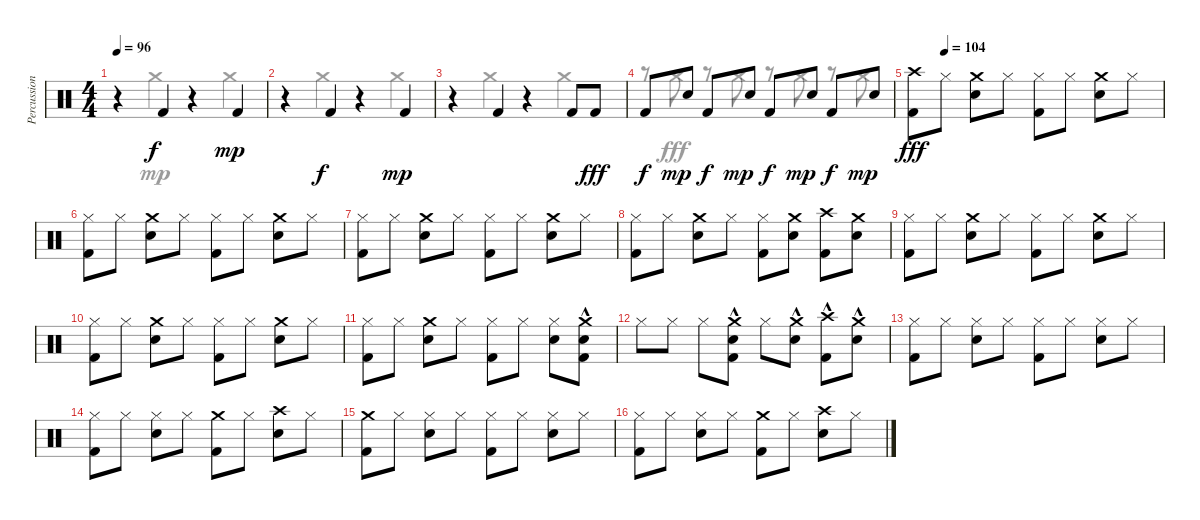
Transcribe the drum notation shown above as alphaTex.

\track ("Percussions" "Percussion") {instrument percussion}
\staff {score}
\articulation defaults
\voice
\ts (4 4)
\tempo 96
\clef neutral
\ks c
r.4{dy mp} "Kick (hit) 2".4{dy f} r.4 "Kick (hit) 2".4{dy mp} |
r.4 "Kick (hit) 2".4{dy f} r.4 "Kick (hit) 2".4{dy mp} |
r.4 "Kick (hit) 2".4 r.4 "Kick (hit) 2".8 "Kick (hit) 2".8{dy fff} |
"Kick (hit) 2".8{dy f} "Snare (hit) 2".8{dy mp} "Kick (hit) 2".8{dy f} "Snare (hit) 2".8{dy mp} "Kick (hit) 2".8{dy f} "Snare (hit) 2".8{dy mp} "Kick (hit) 2".8{dy f} "Snare (hit) 2".8{dy mp} |
\tempo (104 0.125)
("Kick (hit) 2" "Crash high (hit)").8{dy fff} "Hi-Hat (closed)".8 ("Snare (hit) 2" "Crash medium (hit)").8 "Hi-Hat (closed)".8 ("Hi-Hat (closed)" "Kick (hit) 2").8 "Hi-Hat (closed)".8 ("Crash medium (hit)" "Snare (hit) 2").8 "Hi-Hat (closed)".8 |
("Kick (hit) 2" "Hi-Hat (closed)").8 "Hi-Hat (closed)".8 ("Snare (hit) 2" "Crash medium (hit)").8 "Hi-Hat (closed)".8 ("Hi-Hat (closed)" "Kick (hit) 2").8 "Hi-Hat (closed)".8 ("Crash medium (hit)" "Snare (hit) 2").8 "Hi-Hat (closed)".8 |
("Kick (hit) 2" "Hi-Hat (closed)").8 "Hi-Hat (closed)".8 ("Snare (hit) 2" "Crash medium (hit)").8 "Hi-Hat (closed)".8 ("Hi-Hat (closed)" "Kick (hit) 2").8 "Hi-Hat (closed)".8 ("Crash medium (hit)" "Snare (hit) 2").8 "Hi-Hat (closed)".8 |
("Kick (hit) 2" "Hi-Hat (closed)").8 "Hi-Hat (closed)".8 ("Crash medium (hit)" "Snare (hit) 2").8 "Hi-Hat (closed)".8 ("Hi-Hat (closed)" "Kick (hit) 2").8 ("Crash medium (hit)" "Snare (hit) 2").8 ("Crash high (hit)" "Kick (hit) 2").8 ("Crash medium (hit)" "Snare (hit) 2").8 |
("Kick (hit) 2" "Hi-Hat (closed)").8 "Hi-Hat (closed)".8 ("Snare (hit) 2" "Crash medium (hit)").8 "Hi-Hat (closed)".8 ("Hi-Hat (closed)" "Kick (hit) 2").8 "Hi-Hat (closed)".8 ("Crash medium (hit)" "Snare (hit) 2").8 "Hi-Hat (closed)".8 |
("Kick (hit) 2" "Hi-Hat (closed)").8 "Hi-Hat (closed)".8 ("Snare (hit) 2" "Crash medium (hit)").8 "Hi-Hat (closed)".8 ("Hi-Hat (closed)" "Kick (hit) 2").8 "Hi-Hat (closed)".8 ("Crash medium (hit)" "Snare (hit) 2").8 "Hi-Hat (closed)".8 |
("Kick (hit) 2" "Hi-Hat (closed)").8 "Hi-Hat (closed)".8 ("Snare (hit) 2" "Crash medium (hit)").8 "Hi-Hat (closed)".8 ("Hi-Hat (closed)" "Kick (hit) 2").8 "Hi-Hat (closed)".8 ("Hi-Hat (closed)" "Snare (hit) 2").8 ("Crash medium (hit)"{hac} "Snare (hit) 2"{hac} "Kick (hit) 2"{hac}).8 |
"Hi-Hat (closed)".8 "Hi-Hat (closed)".8 "Hi-Hat (closed)".8 ("Crash medium (hit)"{hac} "Snare (hit) 2"{hac} "Kick (hit) 2"{hac}).8 "Hi-Hat (closed)".8 ("Crash medium (hit)"{hac} "Snare (hit) 2"{hac}).8 ("Kick (hit) 2"{hac} "Crash high (hit)"{hac}).8 ("Crash medium (hit)"{hac} "Snare (hit) 2"{hac}).8 |
("Kick (hit) 2" "Hi-Hat (closed)").8 "Hi-Hat (closed)".8 ("Snare (hit) 2" "Hi-Hat (closed)").8 "Hi-Hat (closed)".8 ("Hi-Hat (closed)" "Kick (hit) 2").8 "Hi-Hat (closed)".8 ("Hi-Hat (closed)" "Snare (hit) 2").8 "Hi-Hat (closed)".8 |
("Kick (hit) 2" "Hi-Hat (closed)").8 "Hi-Hat (closed)".8 ("Snare (hit) 2" "Hi-Hat (closed)").8 "Hi-Hat (closed)".8 ("Crash medium (hit)" "Kick (hit) 2").8 "Hi-Hat (closed)".8 ("Crash high (hit)" "Snare (hit) 2").8 "Hi-Hat (closed)".8 |
("Kick (hit) 2" "Crash medium (hit)").8 "Hi-Hat (closed)".8 ("Snare (hit) 2" "Hi-Hat (closed)").8 "Hi-Hat (closed)".8 ("Hi-Hat (closed)" "Kick (hit) 2").8 "Hi-Hat (closed)".8 ("Hi-Hat (closed)" "Snare (hit) 2").8 "Hi-Hat (closed)".8 |
("Kick (hit) 2" "Hi-Hat (closed)").8 "Hi-Hat (closed)".8 ("Snare (hit) 2" "Hi-Hat (closed)").8 "Hi-Hat (closed)".8 ("Crash medium (hit)" "Kick (hit) 2").8 "Hi-Hat (closed)".8 ("Crash high (hit)" "Snare (hit) 2").8 "Hi-Hat (closed)".8
\voice
\clef neutral
\ottava regular
\simile none
\ks c
r.4{dy mp} "Crash medium (hit)".4 r.4 "Crash medium (hit)".4 |
r.4 "Crash medium (hit)".4 r.4 "Crash medium (hit)".4 |
r.4 "Crash medium (hit)".4 r.4 "Crash medium (hit)".4 |
r.8 "Crash medium (hit)".8{dy fff} r.8 "Crash medium (hit)".8 r.8 "Crash medium (hit)".8 r.8 "Crash medium (hit)".8 |
|
|
|
|
|
|
|
|
|
|
|
